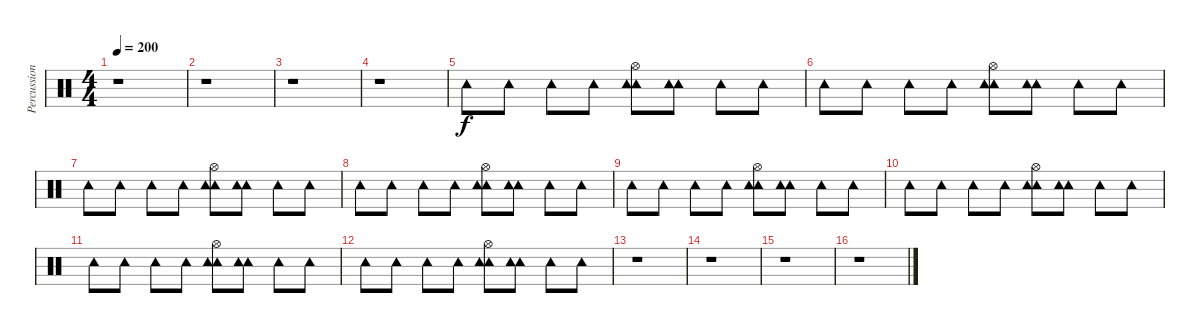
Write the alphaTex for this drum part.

\track ("Percussion" "Percussion") {instrument percussion}
\staff {score}
\articulation defaults
\ts (4 4)
\tempo 200
\clef neutral
\ks c
r.1{dy f} |
r.1 |
r.1 |
r.1 |
"Tambourine (hit)".8 "Tambourine (hit)".8 "Tambourine (hit)".8 "Tambourine (hit)".8 ("Tambourine (hit)" "Tambourine (hit)" "Hi-Hat (open)").8 ("Tambourine (hit)" "Tambourine (hit)").8 "Tambourine (hit)".8 "Tambourine (hit)".8 |
"Tambourine (hit)".8 "Tambourine (hit)".8 "Tambourine (hit)".8 "Tambourine (hit)".8 ("Tambourine (hit)" "Tambourine (hit)" "Hi-Hat (open)").8 ("Tambourine (hit)" "Tambourine (hit)").8 "Tambourine (hit)".8 "Tambourine (hit)".8 |
"Tambourine (hit)".8 "Tambourine (hit)".8 "Tambourine (hit)".8 "Tambourine (hit)".8 ("Tambourine (hit)" "Tambourine (hit)" "Hi-Hat (open)").8 ("Tambourine (hit)" "Tambourine (hit)").8 "Tambourine (hit)".8 "Tambourine (hit)".8 |
"Tambourine (hit)".8 "Tambourine (hit)".8 "Tambourine (hit)".8 "Tambourine (hit)".8 ("Tambourine (hit)" "Tambourine (hit)" "Hi-Hat (open)").8 ("Tambourine (hit)" "Tambourine (hit)").8 "Tambourine (hit)".8 "Tambourine (hit)".8 |
"Tambourine (hit)".8 "Tambourine (hit)".8 "Tambourine (hit)".8 "Tambourine (hit)".8 ("Tambourine (hit)" "Tambourine (hit)" "Hi-Hat (open)").8 ("Tambourine (hit)" "Tambourine (hit)").8 "Tambourine (hit)".8 "Tambourine (hit)".8 |
"Tambourine (hit)".8 "Tambourine (hit)".8 "Tambourine (hit)".8 "Tambourine (hit)".8 ("Tambourine (hit)" "Tambourine (hit)" "Hi-Hat (open)").8 ("Tambourine (hit)" "Tambourine (hit)").8 "Tambourine (hit)".8 "Tambourine (hit)".8 |
"Tambourine (hit)".8 "Tambourine (hit)".8 "Tambourine (hit)".8 "Tambourine (hit)".8 ("Tambourine (hit)" "Tambourine (hit)" "Hi-Hat (open)").8 ("Tambourine (hit)" "Tambourine (hit)").8 "Tambourine (hit)".8 "Tambourine (hit)".8 |
"Tambourine (hit)".8 "Tambourine (hit)".8 "Tambourine (hit)".8 "Tambourine (hit)".8 ("Tambourine (hit)" "Tambourine (hit)" "Hi-Hat (open)").8 ("Tambourine (hit)" "Tambourine (hit)").8 "Tambourine (hit)".8 "Tambourine (hit)".8 |
r.1 |
r.1 |
r.1 |
r.1
